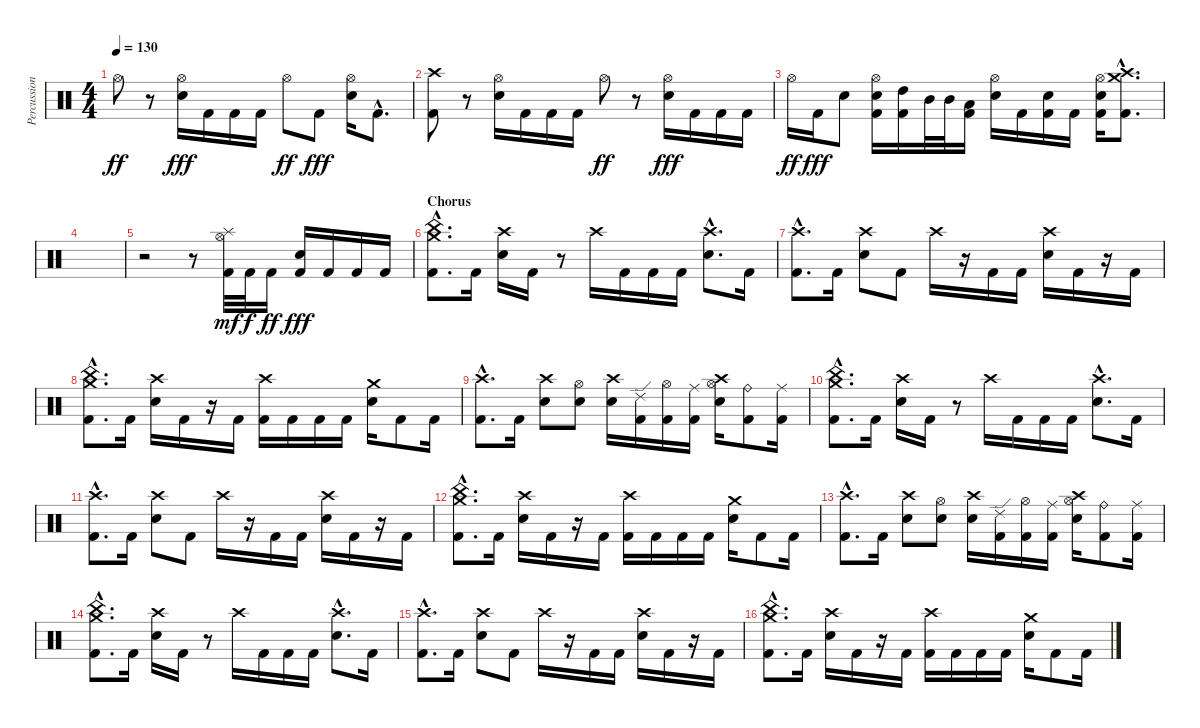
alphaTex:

\track ("Percussion" "Percussion") {instrument percussion}
\staff {score}
\articulation defaults
\ts (4 4)
\tempo 130
\clef neutral
\ks c "Hi-Hat (open)".8{dy ff}
r.8 ("Hi-Hat (open)" "Electric Snare (hit)").16{dy fff} "Kick (hit) 2".16 "Kick (hit) 2".16 "Kick (hit) 2".16 "Hi-Hat (open)".8{dy ff} "Kick (hit) 2".8{dy fff} ("Hi-Hat (open)" "Electric Snare (hit)").16 "Kick (hit) 2"{hac}.8{d} |
("Crash high (hit)" "Kick (hit) 2").8 r.8 ("Hi-Hat (open)" "Electric Snare (hit)").16 "Kick (hit) 2".16 "Kick (hit) 2".16 "Kick (hit) 2".16 "Hi-Hat (open)".8{dy ff} r.8 ("Hi-Hat (open)" "Electric Snare (hit)").16{dy fff} "Kick (hit) 2".16 "Kick (hit) 2".16 "Kick (hit) 2".16 |
"Hi-Hat (open)".16{dy ff} "Kick (hit) 2".16{dy fff} "Electric Snare (hit)".8 ("Hi-Hat (open)" "Electric Snare (hit)" "Kick (hit) 2").16 ("High Tom (hit)" "Kick (hit) 2").16 "Mid Tom (hit)".32 "Mid Tom (hit)".32 ("Low Tom (hit)" "Kick (hit) 2").16 ("Hi-Hat (open)" "Electric Snare (hit)").16 "Kick (hit) 2".16 ("Electric Snare (hit)" "Kick (hit) 2").16 "Kick (hit) 2".16 ("Hi-Hat (open)" "Electric Snare (hit)" "Kick (hit) 2").16 ("Crash medium (hit)"{hac} "Crash high (hit)"{hac} "Kick (hit) 2"{hac}).8{d} |
|
r.2 r.8 ("Splash (hit)" "Hi-Hat (open)" "Kick (hit) 2").32{dy mf} "Kick (hit) 2".32{dy f} "Kick (hit) 2".16{dy ff} ("Electric Snare (hit)" "Kick (hit) 2").16{dy fff} "Kick (hit) 2".16 "Kick (hit) 2".16 "Kick (hit) 2".16 |
\section ("" "Chorus")
("Crash medium (hit)"{hac} "China (hit)"{hac} "Kick (hit) 2"{hac}).8{d} "Kick (hit) 2".16 ("Crash high (hit)" "Electric Snare (hit)").16 "Kick (hit) 2".16 r.8 "Crash high (hit)".16 "Kick (hit) 2".16 "Kick (hit) 2".16 "Kick (hit) 2".16 ("Crash high (hit)"{hac} "Electric Snare (hit)"{hac}).8{d} "Kick (hit) 2".16 |
("Crash high (hit)"{hac} "Kick (hit) 2"{hac}).8{d} "Kick (hit) 2".16 ("Crash high (hit)" "Electric Snare (hit)").8 "Kick (hit) 2".8 "Crash high (hit)".16 r.16 "Kick (hit) 2".16 "Kick (hit) 2".16 ("Crash high (hit)" "Electric Snare (hit)").16 "Kick (hit) 2".16 r.16 "Kick (hit) 2".16 |
("Crash medium (hit)"{hac} "China (hit)"{hac} "Kick (hit) 2"{hac}).8{d} "Kick (hit) 2".16 ("Crash high (hit)" "Electric Snare (hit)").16 "Kick (hit) 2".16 r.16 "Kick (hit) 2".16 ("Crash high (hit)" "Kick (hit) 2").16 "Kick (hit) 2".16 "Kick (hit) 2".16 "Kick (hit) 2".16 ("Crash medium (hit)" "Electric Snare (hit)").16 "Kick (hit) 2".8 "Kick (hit) 2".16 |
("Crash high (hit)"{hac} "Kick (hit) 2"{hac}).8{d} "Kick (hit) 2".16 ("Crash high (hit)" "Electric Snare (hit)").8 ("Hi-Hat (open)" "Electric Snare (hit)").8 ("Crash high (hit)" "Electric Snare (hit)").16 ("Ride (edge) 2" "Kick (hit) 2").16 ("Hi-Hat (open)" "Kick (hit) 2").16 ("Ride (middle)" "Kick (hit) 2").16 ("Crash high (hit)" "Hi-Hat (open)" "Electric Snare (hit)").16 ("Ride (bell)" "Kick (hit) 2").8 ("Ride (middle)" "Kick (hit) 2").16 |
("Crash medium (hit)"{hac} "China (hit)"{hac} "Kick (hit) 2"{hac}).8{d} "Kick (hit) 2".16 ("Crash high (hit)" "Electric Snare (hit)").16 "Kick (hit) 2".16 r.8 "Crash high (hit)".16 "Kick (hit) 2".16 "Kick (hit) 2".16 "Kick (hit) 2".16 ("Crash high (hit)"{hac} "Electric Snare (hit)"{hac}).8{d} "Kick (hit) 2".16 |
("Crash high (hit)"{hac} "Kick (hit) 2"{hac}).8{d} "Kick (hit) 2".16 ("Crash high (hit)" "Electric Snare (hit)").8 "Kick (hit) 2".8 "Crash high (hit)".16 r.16 "Kick (hit) 2".16 "Kick (hit) 2".16 ("Crash high (hit)" "Electric Snare (hit)").16 "Kick (hit) 2".16 r.16 "Kick (hit) 2".16 |
("Crash medium (hit)"{hac} "China (hit)"{hac} "Kick (hit) 2"{hac}).8{d} "Kick (hit) 2".16 ("Crash high (hit)" "Electric Snare (hit)").16 "Kick (hit) 2".16 r.16 "Kick (hit) 2".16 ("Crash high (hit)" "Kick (hit) 2").16 "Kick (hit) 2".16 "Kick (hit) 2".16 "Kick (hit) 2".16 ("Crash medium (hit)" "Electric Snare (hit)").16 "Kick (hit) 2".8 "Kick (hit) 2".16 |
("Crash high (hit)"{hac} "Kick (hit) 2"{hac}).8{d} "Kick (hit) 2".16 ("Crash high (hit)" "Electric Snare (hit)").8 ("Hi-Hat (open)" "Electric Snare (hit)").8 ("Crash high (hit)" "Electric Snare (hit)").16 ("Ride (edge) 2" "Kick (hit) 2").16 ("Hi-Hat (open)" "Kick (hit) 2").16 ("Ride (middle)" "Kick (hit) 2").16 ("Crash high (hit)" "Hi-Hat (open)" "Electric Snare (hit)").16 ("Ride (bell)" "Kick (hit) 2").8 ("Ride (middle)" "Kick (hit) 2").16 |
("Crash medium (hit)"{hac} "China (hit)"{hac} "Kick (hit) 2"{hac}).8{d} "Kick (hit) 2".16 ("Crash high (hit)" "Electric Snare (hit)").16 "Kick (hit) 2".16 r.8 "Crash high (hit)".16 "Kick (hit) 2".16 "Kick (hit) 2".16 "Kick (hit) 2".16 ("Crash high (hit)"{hac} "Electric Snare (hit)"{hac}).8{d} "Kick (hit) 2".16 |
("Crash high (hit)"{hac} "Kick (hit) 2"{hac}).8{d} "Kick (hit) 2".16 ("Crash high (hit)" "Electric Snare (hit)").8 "Kick (hit) 2".8 "Crash high (hit)".16 r.16 "Kick (hit) 2".16 "Kick (hit) 2".16 ("Crash high (hit)" "Electric Snare (hit)").16 "Kick (hit) 2".16 r.16 "Kick (hit) 2".16 |
("Crash medium (hit)"{hac} "China (hit)"{hac} "Kick (hit) 2"{hac}).8{d} "Kick (hit) 2".16 ("Crash high (hit)" "Electric Snare (hit)").16 "Kick (hit) 2".16 r.16 "Kick (hit) 2".16 ("Crash high (hit)" "Kick (hit) 2").16 "Kick (hit) 2".16 "Kick (hit) 2".16 "Kick (hit) 2".16 ("Crash medium (hit)" "Electric Snare (hit)").16 "Kick (hit) 2".8 "Kick (hit) 2".16
